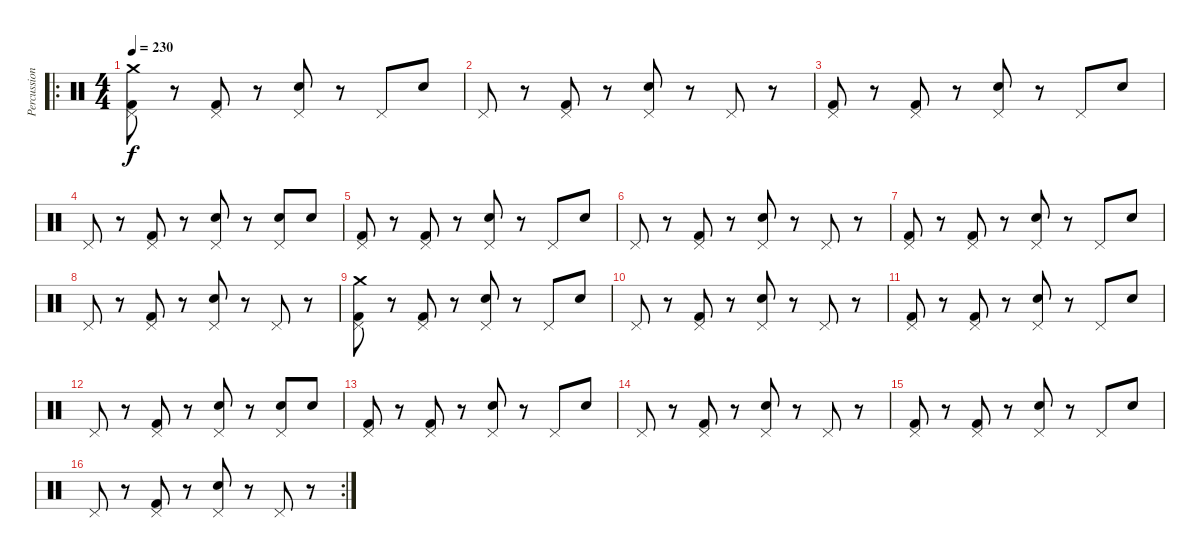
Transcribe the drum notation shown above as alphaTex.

\track ("Percussion" "Percussion") {instrument percussion}
\staff {score}
\articulation defaults
\ro
\ts (4 4)
\tempo 230
\clef neutral
\ks c
("Pedal Hi-Hat (hit)" "Kick (hit) 2" "Crash medium (hit)").8{dy f} r.8 ("Pedal Hi-Hat (hit)" "Kick (hit) 2").8 r.8 ("Pedal Hi-Hat (hit)" "Snare (hit) 2").8 r.8 "Pedal Hi-Hat (hit)".8 "Snare (hit) 2".8 |
"Pedal Hi-Hat (hit)".8 r.8 ("Pedal Hi-Hat (hit)" "Kick (hit) 2").8 r.8 ("Pedal Hi-Hat (hit)" "Snare (hit) 2").8 r.8 "Pedal Hi-Hat (hit)".8 r.8 |
("Pedal Hi-Hat (hit)" "Kick (hit) 2").8 r.8 ("Pedal Hi-Hat (hit)" "Kick (hit) 2").8 r.8 ("Pedal Hi-Hat (hit)" "Snare (hit) 2").8 r.8 "Pedal Hi-Hat (hit)".8 "Snare (hit) 2".8 |
"Pedal Hi-Hat (hit)".8 r.8 ("Pedal Hi-Hat (hit)" "Kick (hit) 2").8 r.8 ("Pedal Hi-Hat (hit)" "Snare (hit) 2").8 r.8 ("Pedal Hi-Hat (hit)" "Snare (hit) 2").8 "Snare (hit) 2".8 |
("Pedal Hi-Hat (hit)" "Kick (hit) 2").8 r.8 ("Pedal Hi-Hat (hit)" "Kick (hit) 2").8 r.8 ("Pedal Hi-Hat (hit)" "Snare (hit) 2").8 r.8 "Pedal Hi-Hat (hit)".8 "Snare (hit) 2".8 |
"Pedal Hi-Hat (hit)".8 r.8 ("Pedal Hi-Hat (hit)" "Kick (hit) 2").8 r.8 ("Pedal Hi-Hat (hit)" "Snare (hit) 2").8 r.8 "Pedal Hi-Hat (hit)".8 r.8 |
("Pedal Hi-Hat (hit)" "Kick (hit) 2").8 r.8 ("Pedal Hi-Hat (hit)" "Kick (hit) 2").8 r.8 ("Pedal Hi-Hat (hit)" "Snare (hit) 2").8 r.8 "Pedal Hi-Hat (hit)".8 "Snare (hit) 2".8 |
"Pedal Hi-Hat (hit)".8 r.8 ("Pedal Hi-Hat (hit)" "Kick (hit) 2").8 r.8 ("Pedal Hi-Hat (hit)" "Snare (hit) 2").8 r.8 "Pedal Hi-Hat (hit)".8 r.8 |
("Pedal Hi-Hat (hit)" "Kick (hit) 2" "Crash medium (hit)").8 r.8 ("Pedal Hi-Hat (hit)" "Kick (hit) 2").8 r.8 ("Pedal Hi-Hat (hit)" "Snare (hit) 2").8 r.8 "Pedal Hi-Hat (hit)".8 "Snare (hit) 2".8 |
"Pedal Hi-Hat (hit)".8 r.8 ("Pedal Hi-Hat (hit)" "Kick (hit) 2").8 r.8 ("Pedal Hi-Hat (hit)" "Snare (hit) 2").8 r.8 "Pedal Hi-Hat (hit)".8 r.8 |
("Pedal Hi-Hat (hit)" "Kick (hit) 2").8 r.8 ("Pedal Hi-Hat (hit)" "Kick (hit) 2").8 r.8 ("Pedal Hi-Hat (hit)" "Snare (hit) 2").8 r.8 "Pedal Hi-Hat (hit)".8 "Snare (hit) 2".8 |
"Pedal Hi-Hat (hit)".8 r.8 ("Pedal Hi-Hat (hit)" "Kick (hit) 2").8 r.8 ("Pedal Hi-Hat (hit)" "Snare (hit) 2").8 r.8 ("Pedal Hi-Hat (hit)" "Snare (hit) 2").8 "Snare (hit) 2".8 |
("Pedal Hi-Hat (hit)" "Kick (hit) 2").8 r.8 ("Pedal Hi-Hat (hit)" "Kick (hit) 2").8 r.8 ("Pedal Hi-Hat (hit)" "Snare (hit) 2").8 r.8 "Pedal Hi-Hat (hit)".8 "Snare (hit) 2".8 |
"Pedal Hi-Hat (hit)".8 r.8 ("Pedal Hi-Hat (hit)" "Kick (hit) 2").8 r.8 ("Pedal Hi-Hat (hit)" "Snare (hit) 2").8 r.8 "Pedal Hi-Hat (hit)".8 r.8 |
("Pedal Hi-Hat (hit)" "Kick (hit) 2").8 r.8 ("Pedal Hi-Hat (hit)" "Kick (hit) 2").8 r.8 ("Pedal Hi-Hat (hit)" "Snare (hit) 2").8 r.8 "Pedal Hi-Hat (hit)".8 "Snare (hit) 2".8 |
\rc 2 "Pedal Hi-Hat (hit)".8
r.8 ("Pedal Hi-Hat (hit)" "Kick (hit) 2").8 r.8 ("Pedal Hi-Hat (hit)" "Snare (hit) 2").8 r.8 "Pedal Hi-Hat (hit)".8 r.8
